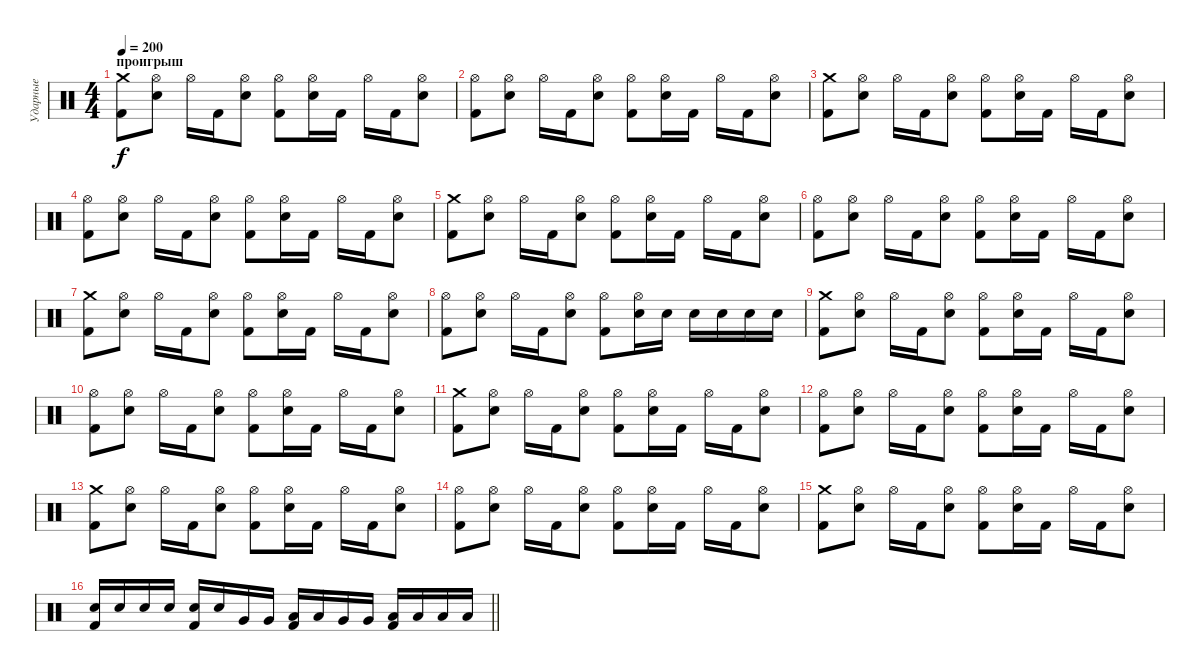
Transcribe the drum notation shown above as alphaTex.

\track ("Ударные" "Ударные") {instrument percussion}
\staff {score}
\articulation defaults
\ts (4 4)
\section ("" "проигрыш")
\tempo 200
\clef neutral
\ks c
("Kick (hit) 2" "Crash medium (hit)").8{dy f} ("Electric Snare (hit)" "Hi-Hat (open)").8 "Hi-Hat (open)".16 "Kick (hit) 2".16 ("Electric Snare (hit)" "Hi-Hat (open)").8 ("Kick (hit) 2" "Hi-Hat (open)").8 ("Electric Snare (hit)" "Hi-Hat (open)").16 "Kick (hit) 2".16 "Hi-Hat (open)".16 "Kick (hit) 2".16 ("Electric Snare (hit)" "Hi-Hat (open)").8 |
("Kick (hit) 2" "Hi-Hat (open)").8 ("Electric Snare (hit)" "Hi-Hat (open)").8 "Hi-Hat (open)".16 "Kick (hit) 2".16 ("Electric Snare (hit)" "Hi-Hat (open)").8 ("Kick (hit) 2" "Hi-Hat (open)").8 ("Electric Snare (hit)" "Hi-Hat (open)").16 "Kick (hit) 2".16 "Hi-Hat (open)".16 "Kick (hit) 2".16 ("Electric Snare (hit)" "Hi-Hat (open)").8 |
("Kick (hit) 2" "Crash medium (hit)").8 ("Electric Snare (hit)" "Hi-Hat (open)").8 "Hi-Hat (open)".16 "Kick (hit) 2".16 ("Electric Snare (hit)" "Hi-Hat (open)").8 ("Kick (hit) 2" "Hi-Hat (open)").8 ("Electric Snare (hit)" "Hi-Hat (open)").16 "Kick (hit) 2".16 "Hi-Hat (open)".16 "Kick (hit) 2".16 ("Electric Snare (hit)" "Hi-Hat (open)").8 |
("Kick (hit) 2" "Hi-Hat (open)").8 ("Electric Snare (hit)" "Hi-Hat (open)").8 "Hi-Hat (open)".16 "Kick (hit) 2".16 ("Electric Snare (hit)" "Hi-Hat (open)").8 ("Kick (hit) 2" "Hi-Hat (open)").8 ("Electric Snare (hit)" "Hi-Hat (open)").16 "Kick (hit) 2".16 "Hi-Hat (open)".16 "Kick (hit) 2".16 ("Electric Snare (hit)" "Hi-Hat (open)").8 |
("Kick (hit) 2" "Crash medium (hit)").8 ("Electric Snare (hit)" "Hi-Hat (open)").8 "Hi-Hat (open)".16 "Kick (hit) 2".16 ("Electric Snare (hit)" "Hi-Hat (open)").8 ("Kick (hit) 2" "Hi-Hat (open)").8 ("Electric Snare (hit)" "Hi-Hat (open)").16 "Kick (hit) 2".16 "Hi-Hat (open)".16 "Kick (hit) 2".16 ("Electric Snare (hit)" "Hi-Hat (open)").8 |
("Kick (hit) 2" "Hi-Hat (open)").8 ("Electric Snare (hit)" "Hi-Hat (open)").8 "Hi-Hat (open)".16 "Kick (hit) 2".16 ("Electric Snare (hit)" "Hi-Hat (open)").8 ("Kick (hit) 2" "Hi-Hat (open)").8 ("Electric Snare (hit)" "Hi-Hat (open)").16 "Kick (hit) 2".16 "Hi-Hat (open)".16 "Kick (hit) 2".16 ("Electric Snare (hit)" "Hi-Hat (open)").8 |
("Kick (hit) 2" "Crash medium (hit)").8 ("Electric Snare (hit)" "Hi-Hat (open)").8 "Hi-Hat (open)".16 "Kick (hit) 2".16 ("Electric Snare (hit)" "Hi-Hat (open)").8 ("Kick (hit) 2" "Hi-Hat (open)").8 ("Electric Snare (hit)" "Hi-Hat (open)").16 "Kick (hit) 2".16 "Hi-Hat (open)".16 "Kick (hit) 2".16 ("Electric Snare (hit)" "Hi-Hat (open)").8 |
("Kick (hit) 2" "Hi-Hat (open)").8 ("Electric Snare (hit)" "Hi-Hat (open)").8 "Hi-Hat (open)".16 "Kick (hit) 2".16 ("Electric Snare (hit)" "Hi-Hat (open)").8 ("Kick (hit) 2" "Hi-Hat (open)").8 ("Electric Snare (hit)" "Hi-Hat (open)").16 "Electric Snare (hit)".16 "Electric Snare (hit)".16 "Electric Snare (hit)".16 "Electric Snare (hit)".16 "Electric Snare (hit)".16 |
("Kick (hit) 2" "Crash medium (hit)").8 ("Electric Snare (hit)" "Hi-Hat (open)").8 "Hi-Hat (open)".16 "Kick (hit) 2".16 ("Electric Snare (hit)" "Hi-Hat (open)").8 ("Kick (hit) 2" "Hi-Hat (open)").8 ("Electric Snare (hit)" "Hi-Hat (open)").16 "Kick (hit) 2".16 "Hi-Hat (open)".16 "Kick (hit) 2".16 ("Electric Snare (hit)" "Hi-Hat (open)").8 |
("Kick (hit) 2" "Hi-Hat (open)").8 ("Electric Snare (hit)" "Hi-Hat (open)").8 "Hi-Hat (open)".16 "Kick (hit) 2".16 ("Electric Snare (hit)" "Hi-Hat (open)").8 ("Kick (hit) 2" "Hi-Hat (open)").8 ("Electric Snare (hit)" "Hi-Hat (open)").16 "Kick (hit) 2".16 "Hi-Hat (open)".16 "Kick (hit) 2".16 ("Electric Snare (hit)" "Hi-Hat (open)").8 |
("Kick (hit) 2" "Crash medium (hit)").8 ("Electric Snare (hit)" "Hi-Hat (open)").8 "Hi-Hat (open)".16 "Kick (hit) 2".16 ("Electric Snare (hit)" "Hi-Hat (open)").8 ("Kick (hit) 2" "Hi-Hat (open)").8 ("Electric Snare (hit)" "Hi-Hat (open)").16 "Kick (hit) 2".16 "Hi-Hat (open)".16 "Kick (hit) 2".16 ("Electric Snare (hit)" "Hi-Hat (open)").8 |
("Kick (hit) 2" "Hi-Hat (open)").8 ("Electric Snare (hit)" "Hi-Hat (open)").8 "Hi-Hat (open)".16 "Kick (hit) 2".16 ("Electric Snare (hit)" "Hi-Hat (open)").8 ("Kick (hit) 2" "Hi-Hat (open)").8 ("Electric Snare (hit)" "Hi-Hat (open)").16 "Kick (hit) 2".16 "Hi-Hat (open)".16 "Kick (hit) 2".16 ("Electric Snare (hit)" "Hi-Hat (open)").8 |
("Kick (hit) 2" "Crash medium (hit)").8 ("Electric Snare (hit)" "Hi-Hat (open)").8 "Hi-Hat (open)".16 "Kick (hit) 2".16 ("Electric Snare (hit)" "Hi-Hat (open)").8 ("Kick (hit) 2" "Hi-Hat (open)").8 ("Electric Snare (hit)" "Hi-Hat (open)").16 "Kick (hit) 2".16 "Hi-Hat (open)".16 "Kick (hit) 2".16 ("Electric Snare (hit)" "Hi-Hat (open)").8 |
("Kick (hit) 2" "Hi-Hat (open)").8 ("Electric Snare (hit)" "Hi-Hat (open)").8 "Hi-Hat (open)".16 "Kick (hit) 2".16 ("Electric Snare (hit)" "Hi-Hat (open)").8 ("Kick (hit) 2" "Hi-Hat (open)").8 ("Electric Snare (hit)" "Hi-Hat (open)").16 "Kick (hit) 2".16 "Hi-Hat (open)".16 "Kick (hit) 2".16 ("Electric Snare (hit)" "Hi-Hat (open)").8 |
("Kick (hit) 2" "Crash medium (hit)").8 ("Electric Snare (hit)" "Hi-Hat (open)").8 "Hi-Hat (open)".16 "Kick (hit) 2".16 ("Electric Snare (hit)" "Hi-Hat (open)").8 ("Kick (hit) 2" "Hi-Hat (open)").8 ("Electric Snare (hit)" "Hi-Hat (open)").16 "Kick (hit) 2".16 "Hi-Hat (open)".16 "Kick (hit) 2".16 ("Electric Snare (hit)" "Hi-Hat (open)").8 |
\barLineRight lightlight
("Electric Snare (hit)" "Kick (hit) 2").16 "Electric Snare (hit)".16 "Electric Snare (hit)".16 "Electric Snare (hit)".16 ("Electric Snare (hit)" "Kick (hit) 2").16 "Electric Snare (hit)".16 "Very Low Tom (hit)".16 "Very Low Tom (hit)".16 ("Low Tom (hit)" "Kick (hit) 2").16 "Low Tom (hit)".16 "Very Low Tom (hit)".16 "Very Low Tom (hit)".16 ("Low Floor Tom (hit)" "Kick (hit) 2").16 "Low Floor Tom (hit)".16 "Low Floor Tom (hit)".16 "Low Floor Tom (hit)".16
